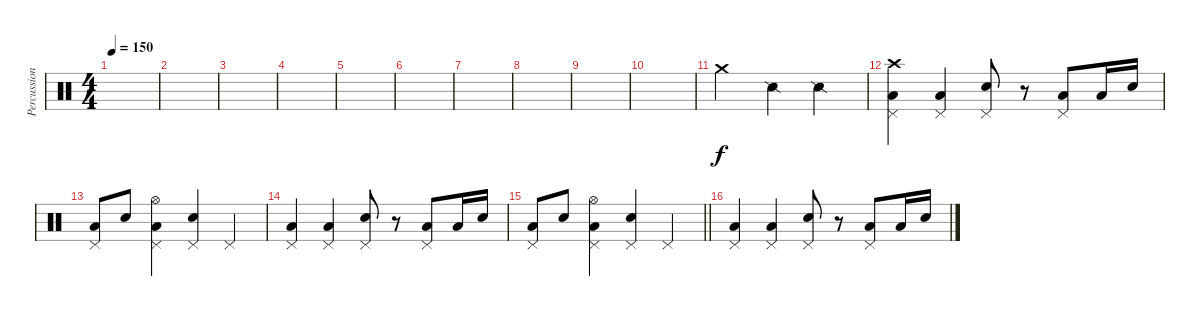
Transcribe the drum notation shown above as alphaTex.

\track ("Percussions" "Percussion") {instrument percussion}
\staff {score}
\articulation defaults
\ts (4 4)
\tempo 150
\clef neutral
\ks c
|
|
|
|
|
|
|
|
|
|
"Crash medium (hit)".2 "Snare (side stick) 2".4 "Snare (side stick) 2".4 |
("Low Floor Tom (hit)" "Pedal Hi-Hat (hit)" "Crash high (hit)").4 ("Low Floor Tom (hit)" "Pedal Hi-Hat (hit)").4 ("Pedal Hi-Hat (hit)" "Electric Snare (hit)").8 r.8 ("Pedal Hi-Hat (hit)" "Low Floor Tom (hit)").8 "Low Floor Tom (hit)".16 "Electric Snare (hit)".16 |
("Low Floor Tom (hit)" "Pedal Hi-Hat (hit)").8 "Electric Snare (hit)".8 ("Low Floor Tom (hit)" "Pedal Hi-Hat (hit)" "Hi-Hat (open)").4 ("Electric Snare (hit)" "Pedal Hi-Hat (hit)").4 "Pedal Hi-Hat (hit)".4 |
("Low Floor Tom (hit)" "Pedal Hi-Hat (hit)").4 ("Low Floor Tom (hit)" "Pedal Hi-Hat (hit)").4 ("Pedal Hi-Hat (hit)" "Electric Snare (hit)").8 r.8 ("Pedal Hi-Hat (hit)" "Low Floor Tom (hit)").8 "Low Floor Tom (hit)".16 "Electric Snare (hit)".16 |
\barLineRight lightlight
("Low Floor Tom (hit)" "Pedal Hi-Hat (hit)").8 "Electric Snare (hit)".8 ("Low Floor Tom (hit)" "Pedal Hi-Hat (hit)" "Hi-Hat (open)").4 ("Electric Snare (hit)" "Pedal Hi-Hat (hit)").4 "Pedal Hi-Hat (hit)".4 |
("Low Floor Tom (hit)" "Pedal Hi-Hat (hit)").4 ("Low Floor Tom (hit)" "Pedal Hi-Hat (hit)").4 ("Pedal Hi-Hat (hit)" "Electric Snare (hit)").8 r.8 ("Pedal Hi-Hat (hit)" "Low Floor Tom (hit)").8 "Low Floor Tom (hit)".16 "Electric Snare (hit)".16
